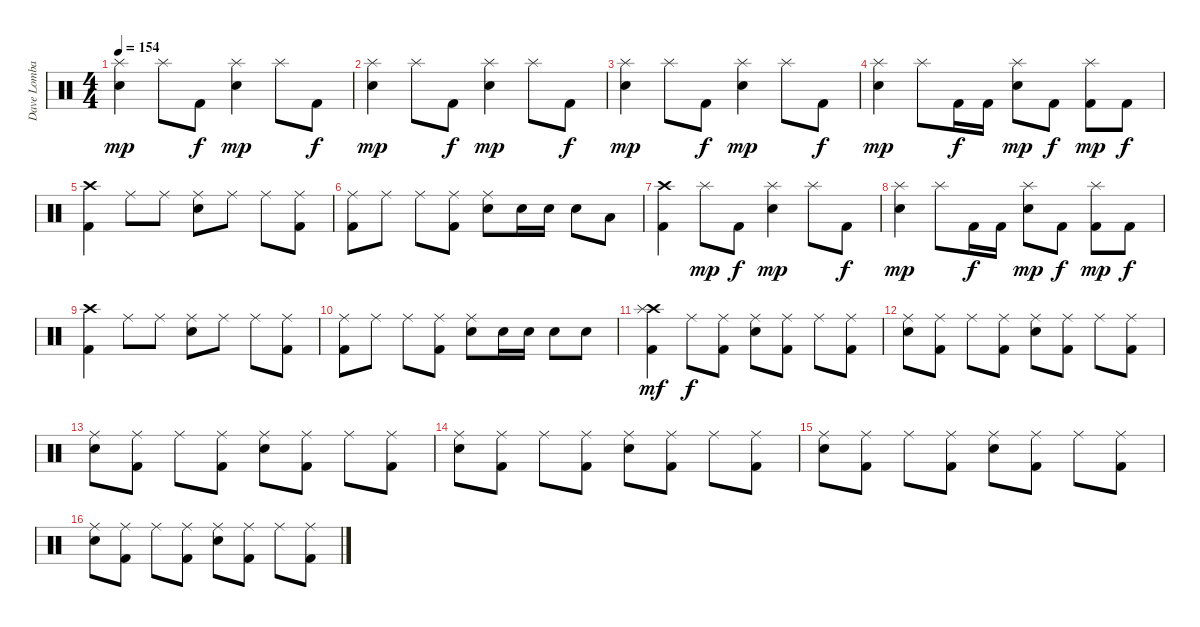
\track ("Dave Lombardo" "Dave Lomba") {instrument percussion}
\staff {score}
\articulation defaults
\ts (4 4)
\tempo 154
\clef neutral
\ks c
("Splash (hit)" "Snare (hit) 2").4{dy mp} "Splash (hit)".8 "Kick (hit) 2".8{dy f} ("Splash (hit)" "Snare (hit) 2").4{dy mp} "Splash (hit)".8 "Kick (hit) 2".8{dy f} |
("Splash (hit)" "Snare (hit) 2").4{dy mp} "Splash (hit)".8 "Kick (hit) 2".8{dy f} ("Splash (hit)" "Snare (hit) 2").4{dy mp} "Splash (hit)".8 "Kick (hit) 2".8{dy f} |
("Splash (hit)" "Snare (hit) 2").4{dy mp} "Splash (hit)".8 "Kick (hit) 2".8{dy f} ("Splash (hit)" "Snare (hit) 2").4{dy mp} "Splash (hit)".8 "Kick (hit) 2".8{dy f} |
("Splash (hit)" "Snare (hit) 2").4{dy mp} "Splash (hit)".8 "Kick (hit) 2".16{dy f} "Kick (hit) 2".16 ("Splash (hit)" "Snare (hit) 2").8{dy mp} "Kick (hit) 2".8{dy f} ("Splash (hit)" "Kick (hit) 2").8{dy mp} "Kick (hit) 2".8{dy f} |
("Crash high (hit)" "Kick (hit) 2").4 "Ride (middle)".8 "Ride (middle)".8 ("Ride (middle)" "Snare (hit) 2").8 "Ride (middle)".8 "Ride (middle)".8 ("Ride (middle)" "Kick (hit) 2").8 |
("Ride (middle)" "Kick (hit) 2").8 "Ride (middle)".8 "Ride (middle)".8 ("Ride (middle)" "Kick (hit) 2").8 ("Ride (middle)" "Snare (hit) 2").8 "Snare (hit) 2".16 "Snare (hit) 2".16 "Snare (hit) 2".8 "Low Floor Tom (hit)".8 |
("Crash high (hit)" "Kick (hit) 2").4 "Splash (hit)".8{dy mp} "Kick (hit) 2".8{dy f} ("Splash (hit)" "Snare (hit) 2").4{dy mp} "Splash (hit)".8 "Kick (hit) 2".8{dy f} |
("Splash (hit)" "Snare (hit) 2").4{dy mp} "Splash (hit)".8 "Kick (hit) 2".16{dy f} "Kick (hit) 2".16 ("Splash (hit)" "Snare (hit) 2").8{dy mp} "Kick (hit) 2".8{dy f} ("Splash (hit)" "Kick (hit) 2").8{dy mp} "Kick (hit) 2".8{dy f} |
("Crash high (hit)" "Kick (hit) 2").4 "Ride (middle)".8 "Ride (middle)".8 ("Ride (middle)" "Snare (hit) 2").8 "Ride (middle)".8 "Ride (middle)".8 ("Ride (middle)" "Kick (hit) 2").8 |
("Ride (middle)" "Kick (hit) 2").8 "Ride (middle)".8 "Ride (middle)".8 ("Ride (middle)" "Kick (hit) 2").8 ("Ride (middle)" "Snare (hit) 2").8 "Snare (hit) 2".16 "Snare (hit) 2".16 "Snare (hit) 2".8 "Snare (hit) 2".8 |
("Crash high (hit)" "Splash (hit)" "Kick (hit) 2").4{dy mf} "Ride (middle)".8{dy f} ("Ride (middle)" "Kick (hit) 2").8 ("Ride (middle)" "Snare (hit) 2").8 ("Ride (middle)" "Kick (hit) 2").8 "Ride (middle)".8 ("Ride (middle)" "Kick (hit) 2").8 |
("Ride (middle)" "Snare (hit) 2").8 ("Ride (middle)" "Kick (hit) 2").8 "Ride (middle)".8 ("Ride (middle)" "Kick (hit) 2").8 ("Ride (middle)" "Snare (hit) 2").8 ("Ride (middle)" "Kick (hit) 2").8 "Ride (middle)".8 ("Ride (middle)" "Kick (hit) 2").8 |
("Ride (middle)" "Snare (hit) 2").8 ("Ride (middle)" "Kick (hit) 2").8 "Ride (middle)".8 ("Ride (middle)" "Kick (hit) 2").8 ("Ride (middle)" "Snare (hit) 2").8 ("Ride (middle)" "Kick (hit) 2").8 "Ride (middle)".8 ("Ride (middle)" "Kick (hit) 2").8 |
("Ride (middle)" "Snare (hit) 2").8 ("Ride (middle)" "Kick (hit) 2").8 "Ride (middle)".8 ("Ride (middle)" "Kick (hit) 2").8 ("Ride (middle)" "Snare (hit) 2").8 ("Ride (middle)" "Kick (hit) 2").8 "Ride (middle)".8 ("Ride (middle)" "Kick (hit) 2").8 |
("Ride (middle)" "Snare (hit) 2").8 ("Ride (middle)" "Kick (hit) 2").8 "Ride (middle)".8 ("Ride (middle)" "Kick (hit) 2").8 ("Ride (middle)" "Snare (hit) 2").8 ("Ride (middle)" "Kick (hit) 2").8 "Ride (middle)".8 ("Ride (middle)" "Kick (hit) 2").8 |
("Ride (middle)" "Snare (hit) 2").8 ("Ride (middle)" "Kick (hit) 2").8 "Ride (middle)".8 ("Ride (middle)" "Kick (hit) 2").8 ("Ride (middle)" "Snare (hit) 2").8 ("Ride (middle)" "Kick (hit) 2").8 "Ride (middle)".8 ("Ride (middle)" "Kick (hit) 2").8
